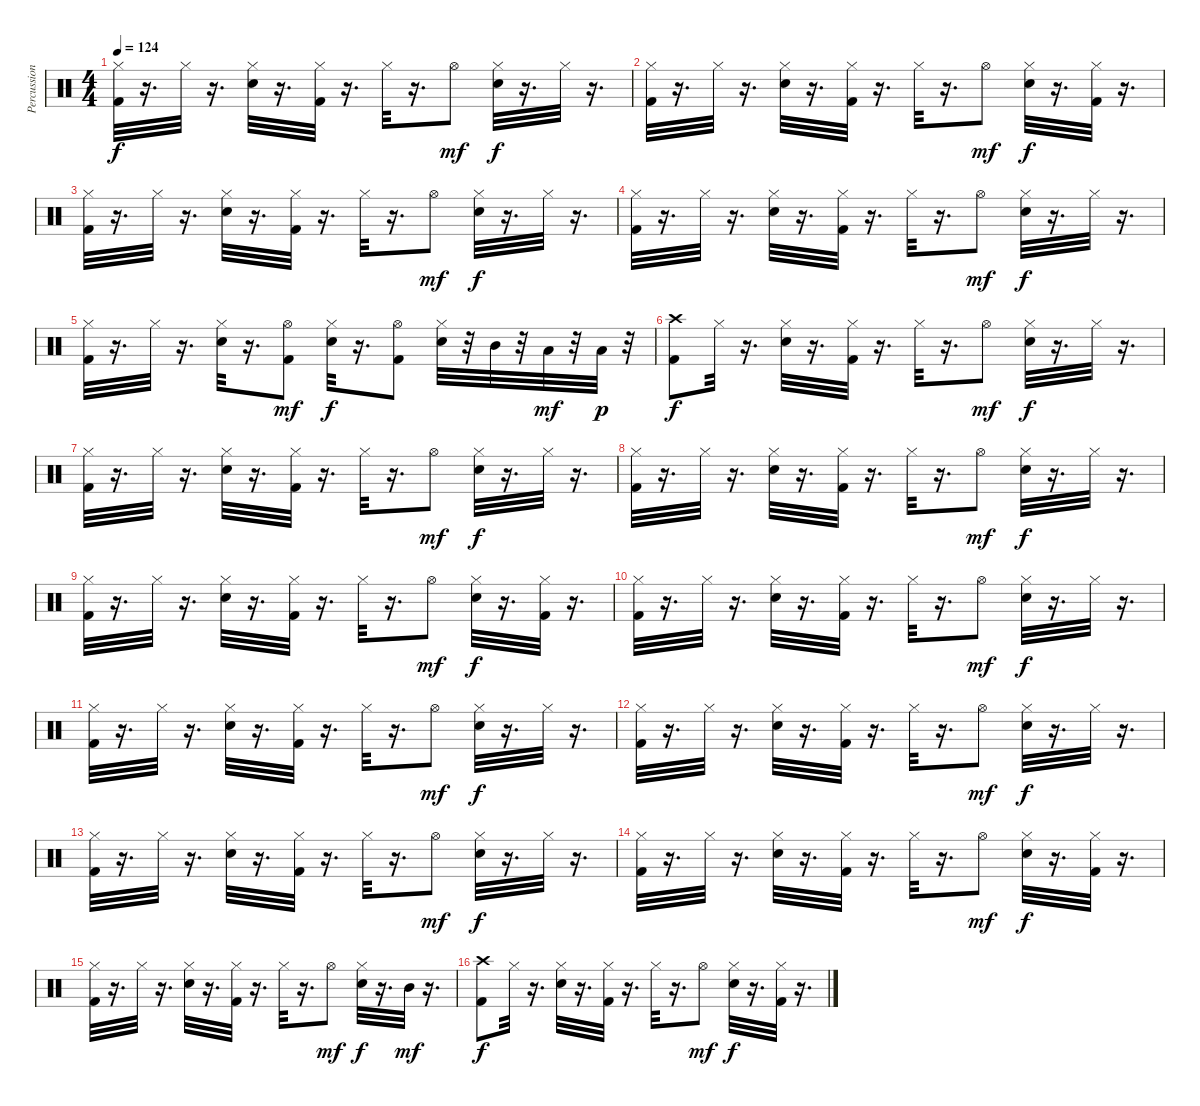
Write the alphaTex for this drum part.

\track ("Percussions" "Percussion") {instrument percussion}
\staff {score}
\articulation defaults
\ts (4 4)
\tempo 124
\clef neutral
\ks c
("Kick (hit) 2" "Hi-Hat (closed)").32{dy f} r.16{d} "Hi-Hat (closed)".32 r.16{d} ("Snare (hit) 2" "Hi-Hat (closed)").32 r.16{d} ("Kick (hit) 2" "Hi-Hat (closed)").32 r.16{d} "Hi-Hat (closed)".32 r.16{d} "Hi-Hat (open)".8{dy mf} ("Snare (hit) 2" "Hi-Hat (closed)").32{dy f} r.16{d} "Hi-Hat (closed)".32 r.16{d} |
("Kick (hit) 2" "Hi-Hat (closed)").32 r.16{d} "Hi-Hat (closed)".32 r.16{d} ("Snare (hit) 2" "Hi-Hat (closed)").32 r.16{d} ("Kick (hit) 2" "Hi-Hat (closed)").32 r.16{d} "Hi-Hat (closed)".32 r.16{d} "Hi-Hat (open)".8{dy mf} ("Snare (hit) 2" "Hi-Hat (closed)").32{dy f} r.16{d} ("Kick (hit) 2" "Hi-Hat (closed)").32 r.16{d} |
("Kick (hit) 2" "Hi-Hat (closed)").32 r.16{d} "Hi-Hat (closed)".32 r.16{d} ("Snare (hit) 2" "Hi-Hat (closed)").32 r.16{d} ("Kick (hit) 2" "Hi-Hat (closed)").32 r.16{d} "Hi-Hat (closed)".32 r.16{d} "Hi-Hat (open)".8{dy mf} ("Snare (hit) 2" "Hi-Hat (closed)").32{dy f} r.16{d} "Hi-Hat (closed)".32 r.16{d} |
("Kick (hit) 2" "Hi-Hat (closed)").32 r.16{d} "Hi-Hat (closed)".32 r.16{d} ("Snare (hit) 2" "Hi-Hat (closed)").32 r.16{d} ("Kick (hit) 2" "Hi-Hat (closed)").32 r.16{d} "Hi-Hat (closed)".32 r.16{d} "Hi-Hat (open)".8{dy mf} ("Snare (hit) 2" "Hi-Hat (closed)").32{dy f} r.16{d} "Hi-Hat (closed)".32 r.16{d} |
("Kick (hit) 2" "Hi-Hat (closed)").32 r.16{d} "Hi-Hat (closed)".32 r.16{d} ("Snare (hit) 2" "Hi-Hat (closed)").32 r.16{d} ("Kick (hit) 2" "Hi-Hat (open)").8{dy mf} ("Snare (hit) 2" "Hi-Hat (closed)").32{dy f} r.16{d} ("Kick (hit) 2" "Hi-Hat (open)").8 ("Snare (hit) 2" "Hi-Hat (closed)").32 r.32 "Mid Tom (hit)".32 r.32 "Low Tom (hit)".32{dy mf} r.32 "Low Tom (hit)".32{dy p} r.32 |
("Kick (hit) 2" "Crash high (hit)").8{dy f} "Hi-Hat (closed)".32 r.16{d} ("Snare (hit) 2" "Hi-Hat (closed)").32 r.16{d} ("Kick (hit) 2" "Hi-Hat (closed)").32 r.16{d} "Hi-Hat (closed)".32 r.16{d} "Hi-Hat (open)".8{dy mf} ("Snare (hit) 2" "Hi-Hat (closed)").32{dy f} r.16{d} "Hi-Hat (closed)".32 r.16{d} |
("Kick (hit) 2" "Hi-Hat (closed)").32 r.16{d} "Hi-Hat (closed)".32 r.16{d} ("Snare (hit) 2" "Hi-Hat (closed)").32 r.16{d} ("Kick (hit) 2" "Hi-Hat (closed)").32 r.16{d} "Hi-Hat (closed)".32 r.16{d} "Hi-Hat (open)".8{dy mf} ("Snare (hit) 2" "Hi-Hat (closed)").32{dy f} r.16{d} "Hi-Hat (closed)".32 r.16{d} |
("Kick (hit) 2" "Hi-Hat (closed)").32 r.16{d} "Hi-Hat (closed)".32 r.16{d} ("Snare (hit) 2" "Hi-Hat (closed)").32 r.16{d} ("Kick (hit) 2" "Hi-Hat (closed)").32 r.16{d} "Hi-Hat (closed)".32 r.16{d} "Hi-Hat (open)".8{dy mf} ("Snare (hit) 2" "Hi-Hat (closed)").32{dy f} r.16{d} "Hi-Hat (closed)".32 r.16{d} |
("Kick (hit) 2" "Hi-Hat (closed)").32 r.16{d} "Hi-Hat (closed)".32 r.16{d} ("Snare (hit) 2" "Hi-Hat (closed)").32 r.16{d} ("Kick (hit) 2" "Hi-Hat (closed)").32 r.16{d} "Hi-Hat (closed)".32 r.16{d} "Hi-Hat (open)".8{dy mf} ("Snare (hit) 2" "Hi-Hat (closed)").32{dy f} r.16{d} ("Kick (hit) 2" "Hi-Hat (closed)").32 r.16{d} |
("Kick (hit) 2" "Hi-Hat (closed)").32 r.16{d} "Hi-Hat (closed)".32 r.16{d} ("Snare (hit) 2" "Hi-Hat (closed)").32 r.16{d} ("Kick (hit) 2" "Hi-Hat (closed)").32 r.16{d} "Hi-Hat (closed)".32 r.16{d} "Hi-Hat (open)".8{dy mf} ("Snare (hit) 2" "Hi-Hat (closed)").32{dy f} r.16{d} "Hi-Hat (closed)".32 r.16{d} |
("Kick (hit) 2" "Hi-Hat (closed)").32 r.16{d} "Hi-Hat (closed)".32 r.16{d} ("Snare (hit) 2" "Hi-Hat (closed)").32 r.16{d} ("Kick (hit) 2" "Hi-Hat (closed)").32 r.16{d} "Hi-Hat (closed)".32 r.16{d} "Hi-Hat (open)".8{dy mf} ("Snare (hit) 2" "Hi-Hat (closed)").32{dy f} r.16{d} "Hi-Hat (closed)".32 r.16{d} |
("Kick (hit) 2" "Hi-Hat (closed)").32 r.16{d} "Hi-Hat (closed)".32 r.16{d} ("Snare (hit) 2" "Hi-Hat (closed)").32 r.16{d} ("Kick (hit) 2" "Hi-Hat (closed)").32 r.16{d} "Hi-Hat (closed)".32 r.16{d} "Hi-Hat (open)".8{dy mf} ("Snare (hit) 2" "Hi-Hat (closed)").32{dy f} r.16{d} "Hi-Hat (closed)".32 r.16{d} |
("Kick (hit) 2" "Hi-Hat (closed)").32 r.16{d} "Hi-Hat (closed)".32 r.16{d} ("Snare (hit) 2" "Hi-Hat (closed)").32 r.16{d} ("Kick (hit) 2" "Hi-Hat (closed)").32 r.16{d} "Hi-Hat (closed)".32 r.16{d} "Hi-Hat (open)".8{dy mf} ("Snare (hit) 2" "Hi-Hat (closed)").32{dy f} r.16{d} "Hi-Hat (closed)".32 r.16{d} |
("Kick (hit) 2" "Hi-Hat (closed)").32 r.16{d} "Hi-Hat (closed)".32 r.16{d} ("Snare (hit) 2" "Hi-Hat (closed)").32 r.16{d} ("Kick (hit) 2" "Hi-Hat (closed)").32 r.16{d} "Hi-Hat (closed)".32 r.16{d} "Hi-Hat (open)".8{dy mf} ("Snare (hit) 2" "Hi-Hat (closed)").32{dy f} r.16{d} ("Kick (hit) 2" "Hi-Hat (closed)").32 r.16{d} |
("Kick (hit) 2" "Hi-Hat (closed)").32 r.16{d} "Hi-Hat (closed)".32 r.16{d} ("Snare (hit) 2" "Hi-Hat (closed)").32 r.16{d} ("Kick (hit) 2" "Hi-Hat (closed)").32 r.16{d} "Hi-Hat (closed)".32 r.16{d} "Hi-Hat (open)".8{dy mf} ("Snare (hit) 2" "Hi-Hat (closed)").32{dy f} r.16{d} "Mid Tom (hit)".32{dy mf} r.16{d} |
("Kick (hit) 2" "Crash high (hit)").8{dy f} "Hi-Hat (closed)".32 r.16{d} ("Snare (hit) 2" "Hi-Hat (closed)").32 r.16{d} ("Kick (hit) 2" "Hi-Hat (closed)").32 r.16{d} "Hi-Hat (closed)".32 r.16{d} "Hi-Hat (open)".8{dy mf} ("Snare (hit) 2" "Hi-Hat (closed)").32{dy f} r.16{d} ("Kick (hit) 2" "Hi-Hat (closed)").32 r.16{d}
